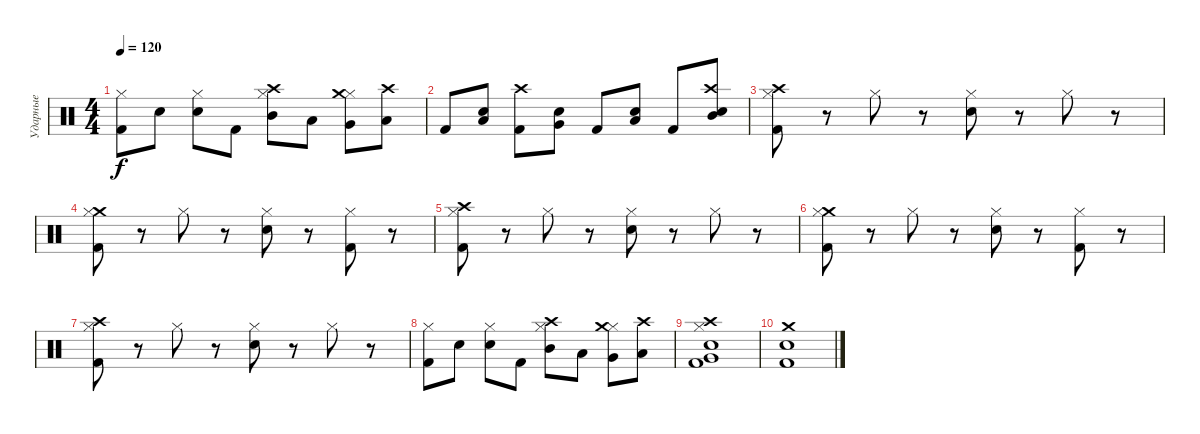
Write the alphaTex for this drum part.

\track ("Ударные" "Ударные") {instrument percussion}
\staff {score}
\articulation defaults
\ts (4 4)
\tempo 120
\clef neutral
\ks c
("Hi-Hat (closed)" "Kick (hit) 2").8{dy f} "Snare (hit) 2".8 ("Snare (hit) 2" "Hi-Hat (closed)").8 "Kick (hit) 2".8 ("Mid Tom (hit)" "Hi-Hat (closed)" "Crash high (hit)").8 "Low Tom (hit)".8 ("Very Low Tom (hit)" "Hi-Hat (closed)" "Crash medium (hit)").8 ("Low Floor Tom (hit)" "Crash high (hit)").8 |
"Kick (hit) 2".8 ("Low Floor Tom (hit)" "Electric Snare (hit)").8 ("Crash high (hit)" "Kick (hit) 2").8 ("Electric Snare (hit)" "Very Low Tom (hit)").8 "Kick (hit) 2".8 ("Low Tom (hit)" "Electric Snare (hit)").8 "Kick (hit) 2".8 ("Electric Snare (hit)" "Crash high (hit)" "Mid Tom (hit)").8 |
("Crash high (hit)" "Hi-Hat (closed)" "Kick (hit) 2").8 r.8 "Hi-Hat (closed)".8 r.8 ("Snare (hit) 2" "Hi-Hat (closed)").8 r.8 "Hi-Hat (closed)".8 r.8 |
("Crash medium (hit)" "Hi-Hat (closed)" "Kick (hit) 2").8 r.8 "Hi-Hat (closed)".8 r.8 ("Snare (hit) 2" "Hi-Hat (closed)").8 r.8 ("Hi-Hat (closed)" "Kick (hit) 2").8 r.8 |
("Crash high (hit)" "Hi-Hat (closed)" "Kick (hit) 2").8 r.8 "Hi-Hat (closed)".8 r.8 ("Snare (hit) 2" "Hi-Hat (closed)").8 r.8 "Hi-Hat (closed)".8 r.8 |
("Crash medium (hit)" "Hi-Hat (closed)" "Kick (hit) 2").8 r.8 "Hi-Hat (closed)".8 r.8 ("Snare (hit) 2" "Hi-Hat (closed)").8 r.8 ("Hi-Hat (closed)" "Kick (hit) 2").8 r.8 |
("Crash high (hit)" "Hi-Hat (closed)" "Kick (hit) 2").8 r.8 "Hi-Hat (closed)".8 r.8 ("Snare (hit) 2" "Hi-Hat (closed)").8 r.8 "Hi-Hat (closed)".8 r.8 |
("Hi-Hat (closed)" "Kick (hit) 2").8 "Snare (hit) 2".8 ("Snare (hit) 2" "Hi-Hat (closed)").8 "Kick (hit) 2".8 ("Mid Tom (hit)" "Hi-Hat (closed)" "Crash high (hit)").8 "Low Tom (hit)".8 ("Very Low Tom (hit)" "Hi-Hat (closed)" "Crash medium (hit)").8 ("Low Floor Tom (hit)" "Crash high (hit)").8 |
("Very Low Tom (hit)" "Crash high (hit)" "Kick (hit) 2" "Snare (hit) 2" "Hi-Hat (closed)").1 |
("Kick (hit) 2" "Electric Snare (hit)" "Crash medium (hit)").1
